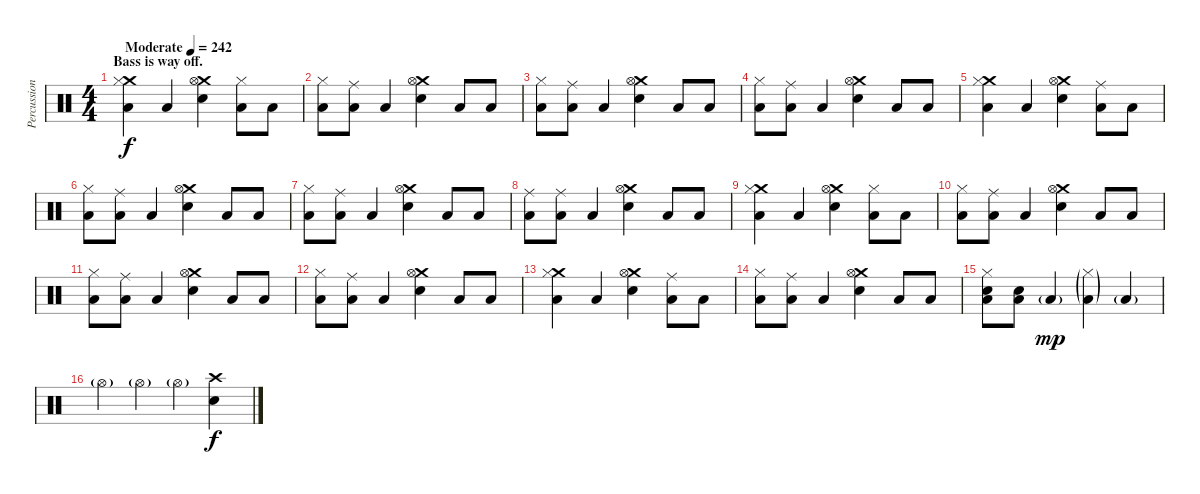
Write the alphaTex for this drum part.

\track ("Percussion" "Percussion") {instrument percussion}
\staff {score}
\articulation defaults
\ts (4 4)
\section ("" "Bass is way off. ")
\tempo (242 "Moderate")
\clef neutral
\ks c
("Crash medium (hit)" "Hi-Hat (closed)" "Low Tom (hit)").4{dy f} "Low Tom (hit)".4 ("Crash medium (hit)" "Hi-Hat (open)" "Electric Snare (hit)").4 ("Hi-Hat (closed)" "Low Tom (hit)").8 "Low Tom (hit)".8 |
("Hi-Hat (closed)" "Low Tom (hit)").8 ("Ride (middle)" "Low Tom (hit)").8 "Low Tom (hit)".4 ("Crash medium (hit)" "Hi-Hat (open)" "Electric Snare (hit)").4 "Low Tom (hit)".8 "Low Tom (hit)".8 |
("Hi-Hat (closed)" "Low Tom (hit)").8 ("Ride (middle)" "Low Tom (hit)").8 "Low Tom (hit)".4 ("Crash medium (hit)" "Hi-Hat (open)" "Electric Snare (hit)").4 "Low Tom (hit)".8 "Low Tom (hit)".8 |
("Hi-Hat (closed)" "Low Tom (hit)").8 ("Ride (middle)" "Low Tom (hit)").8 "Low Tom (hit)".4 ("Crash medium (hit)" "Hi-Hat (open)" "Electric Snare (hit)").4 "Low Tom (hit)".8 "Low Tom (hit)".8 |
("Crash medium (hit)" "Hi-Hat (closed)" "Low Tom (hit)").4 "Low Tom (hit)".4 ("Crash medium (hit)" "Hi-Hat (open)" "Electric Snare (hit)").4 ("Ride (middle)" "Low Tom (hit)").8 "Low Tom (hit)".8 |
("Hi-Hat (closed)" "Low Tom (hit)").8 ("Ride (middle)" "Low Tom (hit)").8 "Low Tom (hit)".4 ("Crash medium (hit)" "Hi-Hat (open)" "Electric Snare (hit)").4 "Low Tom (hit)".8 "Low Tom (hit)".8 |
("Hi-Hat (closed)" "Low Tom (hit)").8 ("Ride (middle)" "Low Tom (hit)").8 "Low Tom (hit)".4 ("Crash medium (hit)" "Hi-Hat (open)" "Electric Snare (hit)").4 "Low Tom (hit)".8 "Low Tom (hit)".8 |
("Ride (middle)" "Low Tom (hit)").8 ("Ride (middle)" "Low Tom (hit)").8 "Low Tom (hit)".4 ("Crash medium (hit)" "Hi-Hat (open)" "Electric Snare (hit)").4 "Low Tom (hit)".8 "Low Tom (hit)".8 |
("Crash medium (hit)" "Hi-Hat (closed)" "Low Tom (hit)").4 "Low Tom (hit)".4 ("Crash medium (hit)" "Hi-Hat (open)" "Electric Snare (hit)").4 ("Hi-Hat (closed)" "Low Tom (hit)").8 "Low Tom (hit)".8 |
("Hi-Hat (closed)" "Low Tom (hit)").8 ("Ride (middle)" "Low Tom (hit)").8 "Low Tom (hit)".4 ("Crash medium (hit)" "Hi-Hat (open)" "Electric Snare (hit)").4 "Low Tom (hit)".8 "Low Tom (hit)".8 |
("Hi-Hat (closed)" "Low Tom (hit)").8 ("Ride (middle)" "Low Tom (hit)").8 "Low Tom (hit)".4 ("Crash medium (hit)" "Hi-Hat (open)" "Electric Snare (hit)").4 "Low Tom (hit)".8 "Low Tom (hit)".8 |
("Hi-Hat (closed)" "Low Tom (hit)").8 ("Ride (middle)" "Low Tom (hit)").8 "Low Tom (hit)".4 ("Crash medium (hit)" "Hi-Hat (open)" "Electric Snare (hit)").4 "Low Tom (hit)".8 "Low Tom (hit)".8 |
("Crash medium (hit)" "Hi-Hat (closed)" "Low Tom (hit)").4 "Low Tom (hit)".4 ("Crash medium (hit)" "Hi-Hat (open)" "Electric Snare (hit)").4 ("Ride (middle)" "Low Tom (hit)").8 "Low Tom (hit)".8 |
("Hi-Hat (closed)" "Low Tom (hit)").8 ("Ride (middle)" "Low Tom (hit)").8 "Low Tom (hit)".4 ("Crash medium (hit)" "Hi-Hat (open)" "Electric Snare (hit)").4 "Low Tom (hit)".8 "Low Tom (hit)".8 |
("Hi-Hat (closed)" "Electric Snare (hit)" "Low Tom (hit)").8 ("Low Floor Tom (hit)" "Electric Snare (hit)").8 "Low Tom (hit)"{g}.4{dy mp} ("Hi-Hat (closed)"{g} "Low Tom (hit)"{g}).4 "Low Tom (hit)"{g}.4 |
"Hi-Hat (open)"{g}.4 "Hi-Hat (open)"{g}.4 "Hi-Hat (open)"{g}.4 ("Electric Snare (hit)" "Crash high (hit)").4{dy f}
